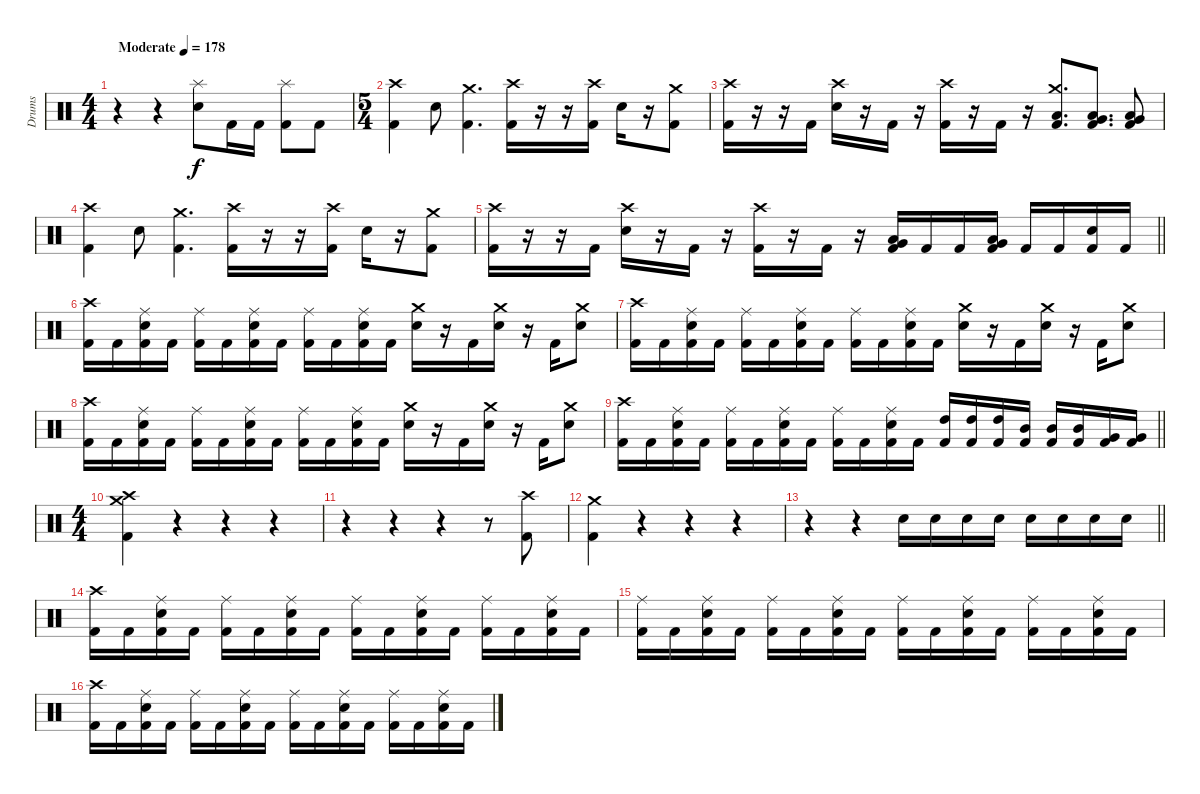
\track ("Drums" "Drums") {instrument percussion}
\staff {score}
\articulation defaults
\ts (4 4)
\tempo (178 "Moderate")
\clef neutral
\ks c
r.4{dy f} r.4 ("Splash (hit)" "Electric Snare (hit)").8 "Kick (hit) 2".16 "Kick (hit) 2".16 ("Splash (hit)" "Kick (hit) 2").8 "Kick (hit) 2".8 |
\ts (5 4)
("Crash high (hit)" "Kick (hit) 2").4 "Snare (hit) 2".8 ("Crash medium (hit)" "Kick (hit) 2").4{d} ("Crash high (hit)" "Kick (hit) 2").16 r.16 r.16 ("Crash high (hit)" "Kick (hit) 2").16 "Snare (hit) 2".16 r.16 ("Crash medium (hit)" "Kick (hit) 2").8 |
("Crash high (hit)" "Kick (hit) 2").16 r.16 r.16 "Kick (hit) 2".16 ("Crash high (hit)" "Snare (hit) 2").16 r.16 "Kick (hit) 2".16 r.16 ("Crash high (hit)" "Kick (hit) 2").16 r.16 "Kick (hit) 2".16 r.16 ("Crash medium (hit)" "Low Floor Tom (hit)" "Kick (hit) 2").8{d} ("Very Low Tom (hit)" "Low Floor Tom (hit)" "Kick (hit) 2").8{d} ("Very Low Tom (hit)" "Low Floor Tom (hit)" "Kick (hit) 2").8 |
("Crash high (hit)" "Kick (hit) 2").4 "Snare (hit) 2".8 ("Crash medium (hit)" "Kick (hit) 2").4{d} ("Crash high (hit)" "Kick (hit) 2").16 r.16 r.16 ("Crash high (hit)" "Kick (hit) 2").16 "Snare (hit) 2".16 r.16 ("Crash medium (hit)" "Kick (hit) 2").8 |
\barLineRight lightlight
("Crash high (hit)" "Kick (hit) 2").16 r.16 r.16 "Kick (hit) 2".16 ("Crash high (hit)" "Snare (hit) 2").16 r.16 "Kick (hit) 2".16 r.16 ("Crash high (hit)" "Kick (hit) 2").16 r.16 "Kick (hit) 2".16 r.16 ("Very Low Tom (hit)" "Low Floor Tom (hit)" "Kick (hit) 2").16 "Kick (hit) 2".16 "Kick (hit) 2".16 ("Very Low Tom (hit)" "Low Floor Tom (hit)" "Kick (hit) 2").16 "Kick (hit) 2".16 "Kick (hit) 2".16 ("Snare (hit) 2" "Kick (hit) 2").16 "Kick (hit) 2".16 |
("Crash high (hit)" "Kick (hit) 2").16 "Kick (hit) 2".16 ("Ride (middle)" "Snare (hit) 2" "Kick (hit) 2").16 "Kick (hit) 2".16 ("Ride (middle)" "Kick (hit) 2").16 "Kick (hit) 2".16 ("Ride (middle)" "Snare (hit) 2" "Kick (hit) 2").16 "Kick (hit) 2".16 ("Ride (middle)" "Kick (hit) 2").16 "Kick (hit) 2".16 ("Ride (middle)" "Snare (hit) 2" "Kick (hit) 2").16 "Kick (hit) 2".16 ("Crash medium (hit)" "Snare (hit) 2").16 r.16 "Kick (hit) 2".16 ("Crash medium (hit)" "Snare (hit) 2").16 r.16 "Kick (hit) 2".16 ("Crash medium (hit)" "Snare (hit) 2").8 |
("Crash high (hit)" "Kick (hit) 2").16 "Kick (hit) 2".16 ("Ride (middle)" "Snare (hit) 2" "Kick (hit) 2").16 "Kick (hit) 2".16 ("Ride (middle)" "Kick (hit) 2").16 "Kick (hit) 2".16 ("Ride (middle)" "Snare (hit) 2" "Kick (hit) 2").16 "Kick (hit) 2".16 ("Ride (middle)" "Kick (hit) 2").16 "Kick (hit) 2".16 ("Ride (middle)" "Snare (hit) 2" "Kick (hit) 2").16 "Kick (hit) 2".16 ("Crash medium (hit)" "Snare (hit) 2").16 r.16 "Kick (hit) 2".16 ("Crash medium (hit)" "Snare (hit) 2").16 r.16 "Kick (hit) 2".16 ("Crash medium (hit)" "Snare (hit) 2").8 |
("Crash high (hit)" "Kick (hit) 2").16 "Kick (hit) 2".16 ("Ride (middle)" "Snare (hit) 2" "Kick (hit) 2").16 "Kick (hit) 2".16 ("Ride (middle)" "Kick (hit) 2").16 "Kick (hit) 2".16 ("Ride (middle)" "Snare (hit) 2" "Kick (hit) 2").16 "Kick (hit) 2".16 ("Ride (middle)" "Kick (hit) 2").16 "Kick (hit) 2".16 ("Ride (middle)" "Snare (hit) 2" "Kick (hit) 2").16 "Kick (hit) 2".16 ("Crash medium (hit)" "Snare (hit) 2").16 r.16 "Kick (hit) 2".16 ("Crash medium (hit)" "Snare (hit) 2").16 r.16 "Kick (hit) 2".16 ("Crash medium (hit)" "Snare (hit) 2").8 |
\barLineRight lightlight
("Crash high (hit)" "Kick (hit) 2").16 "Kick (hit) 2".16 ("Ride (middle)" "Snare (hit) 2" "Kick (hit) 2").16 "Kick (hit) 2".16 ("Ride (middle)" "Kick (hit) 2").16 "Kick (hit) 2".16 ("Ride (middle)" "Snare (hit) 2" "Kick (hit) 2").16 "Kick (hit) 2".16 ("Ride (middle)" "Kick (hit) 2").16 "Kick (hit) 2".16 ("Ride (middle)" "Snare (hit) 2" "Kick (hit) 2").16 "Kick (hit) 2".16 ("High Tom (hit)" "Kick (hit) 2").16 ("High Tom (hit)" "Kick (hit) 2").16 ("High Tom (hit)" "Kick (hit) 2").16 ("Mid Tom (hit)" "Kick (hit) 2").16 ("Mid Tom (hit)" "Kick (hit) 2").16 ("Mid Tom (hit)" "Kick (hit) 2").16 ("Very Low Tom (hit)" "Kick (hit) 2").16 ("Very Low Tom (hit)" "Kick (hit) 2").16 |
\ts (4 4)
("Crash high (hit)" "Crash medium (hit)" "Kick (hit) 2").4 r.4 r.4 r.4 |
r.4 r.4 r.4 r.8 ("Crash high (hit)" "Kick (hit) 2").8 |
("Crash medium (hit)" "Kick (hit) 2").4 r.4 r.4 r.4 |
\barLineRight lightlight
r.4 r.4 "Electric Snare (hit)".16 "Electric Snare (hit)".16 "Electric Snare (hit)".16 "Electric Snare (hit)".16 "Electric Snare (hit)".16 "Electric Snare (hit)".16 "Electric Snare (hit)".16 "Electric Snare (hit)".16 |
("Crash high (hit)" "Kick (hit) 2").16 "Kick (hit) 2".16 ("Ride (middle)" "Snare (hit) 2" "Kick (hit) 2").16 "Kick (hit) 2".16 ("Ride (middle)" "Kick (hit) 2").16 "Kick (hit) 2".16 ("Ride (middle)" "Snare (hit) 2" "Kick (hit) 2").16 "Kick (hit) 2".16 ("Ride (middle)" "Kick (hit) 2").16 "Kick (hit) 2".16 ("Ride (middle)" "Snare (hit) 2" "Kick (hit) 2").16 "Kick (hit) 2".16 ("Ride (middle)" "Kick (hit) 2").16 "Kick (hit) 2".16 ("Ride (middle)" "Snare (hit) 2" "Kick (hit) 2").16 "Kick (hit) 2".16 |
("Ride (middle)" "Kick (hit) 2").16 "Kick (hit) 2".16 ("Ride (middle)" "Snare (hit) 2" "Kick (hit) 2").16 "Kick (hit) 2".16 ("Ride (middle)" "Kick (hit) 2").16 "Kick (hit) 2".16 ("Ride (middle)" "Snare (hit) 2" "Kick (hit) 2").16 "Kick (hit) 2".16 ("Ride (middle)" "Kick (hit) 2").16 "Kick (hit) 2".16 ("Ride (middle)" "Snare (hit) 2" "Kick (hit) 2").16 "Kick (hit) 2".16 ("Ride (middle)" "Kick (hit) 2").16 "Kick (hit) 2".16 ("Ride (middle)" "Snare (hit) 2" "Kick (hit) 2").16 "Kick (hit) 2".16 |
("Crash high (hit)" "Kick (hit) 2").16 "Kick (hit) 2".16 ("Ride (middle)" "Snare (hit) 2" "Kick (hit) 2").16 "Kick (hit) 2".16 ("Ride (middle)" "Kick (hit) 2").16 "Kick (hit) 2".16 ("Ride (middle)" "Snare (hit) 2" "Kick (hit) 2").16 "Kick (hit) 2".16 ("Ride (middle)" "Kick (hit) 2").16 "Kick (hit) 2".16 ("Ride (middle)" "Snare (hit) 2" "Kick (hit) 2").16 "Kick (hit) 2".16 ("Ride (middle)" "Kick (hit) 2").16 "Kick (hit) 2".16 ("Ride (middle)" "Snare (hit) 2" "Kick (hit) 2").16 "Kick (hit) 2".16
